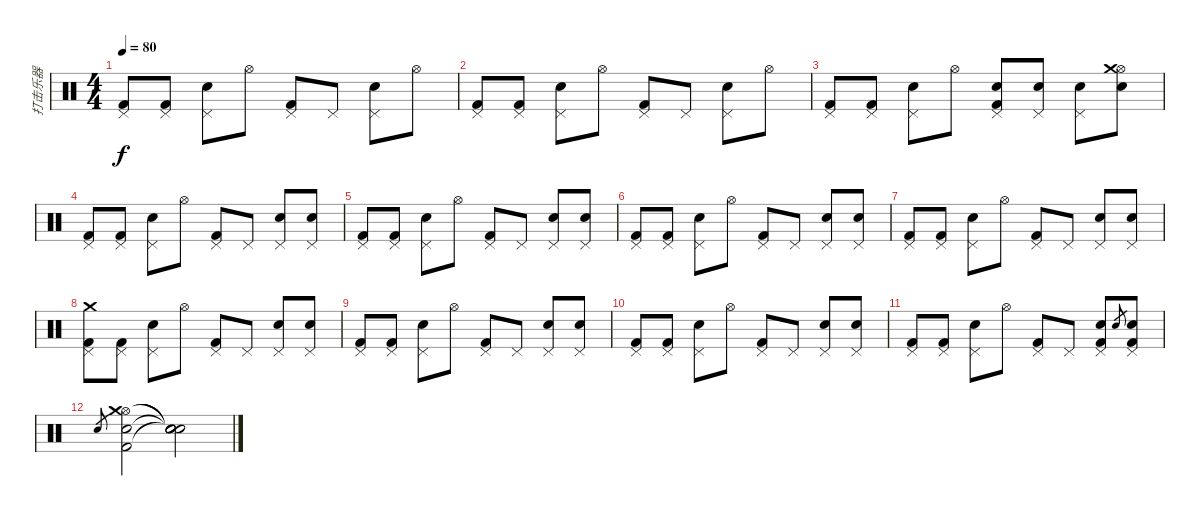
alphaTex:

\track ("打击乐器" "打击乐器") {instrument percussion}
\staff {score}
\articulation defaults
\ts (4 4)
\tempo 80
\clef neutral
\ks c
("Pedal Hi-Hat (hit)" "Kick (hit) 2").8{dy f} ("Pedal Hi-Hat (hit)" "Kick (hit) 2").8 ("Pedal Hi-Hat (hit)" "Snare (hit) 2").8 "Hi-Hat (open)".8 ("Pedal Hi-Hat (hit)" "Kick (hit) 2").8 "Pedal Hi-Hat (hit)".8 ("Pedal Hi-Hat (hit)" "Snare (hit) 2").8 "Hi-Hat (open)".8 |
("Pedal Hi-Hat (hit)" "Kick (hit) 2").8 ("Pedal Hi-Hat (hit)" "Kick (hit) 2").8 ("Pedal Hi-Hat (hit)" "Snare (hit) 2").8 "Hi-Hat (open)".8 ("Pedal Hi-Hat (hit)" "Kick (hit) 2").8 "Pedal Hi-Hat (hit)".8 ("Pedal Hi-Hat (hit)" "Snare (hit) 2").8 "Hi-Hat (open)".8 |
("Pedal Hi-Hat (hit)" "Kick (hit) 2").8 ("Pedal Hi-Hat (hit)" "Kick (hit) 2").8 ("Pedal Hi-Hat (hit)" "Snare (hit) 2").8 "Hi-Hat (open)".8 ("Pedal Hi-Hat (hit)" "Kick (hit) 2" "Snare (hit) 2").8 ("Pedal Hi-Hat (hit)" "Snare (hit) 2").8 ("Pedal Hi-Hat (hit)" "Snare (hit) 2").8 ("Hi-Hat (open)" "Crash medium (hit)" "Snare (hit) 2").8 |
("Pedal Hi-Hat (hit)" "Kick (hit) 2").8 ("Pedal Hi-Hat (hit)" "Kick (hit) 2").8 ("Pedal Hi-Hat (hit)" "Snare (hit) 2").8 "Hi-Hat (open)".8 ("Pedal Hi-Hat (hit)" "Kick (hit) 2").8 "Pedal Hi-Hat (hit)".8 ("Pedal Hi-Hat (hit)" "Snare (hit) 2").8 ("Pedal Hi-Hat (hit)" "Snare (hit) 2").8 |
("Pedal Hi-Hat (hit)" "Kick (hit) 2").8 ("Pedal Hi-Hat (hit)" "Kick (hit) 2").8 ("Pedal Hi-Hat (hit)" "Snare (hit) 2").8 "Hi-Hat (open)".8 ("Pedal Hi-Hat (hit)" "Kick (hit) 2").8 "Pedal Hi-Hat (hit)".8 ("Pedal Hi-Hat (hit)" "Snare (hit) 2").8 ("Pedal Hi-Hat (hit)" "Snare (hit) 2").8 |
("Pedal Hi-Hat (hit)" "Kick (hit) 2").8 ("Pedal Hi-Hat (hit)" "Kick (hit) 2").8 ("Pedal Hi-Hat (hit)" "Snare (hit) 2").8 "Hi-Hat (open)".8 ("Pedal Hi-Hat (hit)" "Kick (hit) 2").8 "Pedal Hi-Hat (hit)".8 ("Pedal Hi-Hat (hit)" "Snare (hit) 2").8 ("Pedal Hi-Hat (hit)" "Snare (hit) 2").8 |
("Pedal Hi-Hat (hit)" "Kick (hit) 2").8 ("Pedal Hi-Hat (hit)" "Kick (hit) 2").8 ("Pedal Hi-Hat (hit)" "Snare (hit) 2").8 "Hi-Hat (open)".8 ("Pedal Hi-Hat (hit)" "Kick (hit) 2").8 "Pedal Hi-Hat (hit)".8 ("Pedal Hi-Hat (hit)" "Snare (hit) 2").8 ("Pedal Hi-Hat (hit)" "Snare (hit) 2").8 |
("Pedal Hi-Hat (hit)" "Crash medium (hit)" "Kick (hit) 2").8 ("Pedal Hi-Hat (hit)" "Kick (hit) 2").8 ("Pedal Hi-Hat (hit)" "Snare (hit) 2").8{volume 16} "Hi-Hat (open)".8 ("Pedal Hi-Hat (hit)" "Kick (hit) 2").8{volume 15} "Pedal Hi-Hat (hit)".8 ("Pedal Hi-Hat (hit)" "Snare (hit) 2").8{volume 14} ("Pedal Hi-Hat (hit)" "Snare (hit) 2").8 |
("Pedal Hi-Hat (hit)" "Kick (hit) 2").8{volume 13} ("Pedal Hi-Hat (hit)" "Kick (hit) 2").8 ("Pedal Hi-Hat (hit)" "Snare (hit) 2").8{volume 12} "Hi-Hat (open)".8 ("Pedal Hi-Hat (hit)" "Kick (hit) 2").8{volume 11} "Pedal Hi-Hat (hit)".8 ("Pedal Hi-Hat (hit)" "Snare (hit) 2").8{volume 10} ("Pedal Hi-Hat (hit)" "Snare (hit) 2").8 |
("Pedal Hi-Hat (hit)" "Kick (hit) 2").8{volume 9} ("Pedal Hi-Hat (hit)" "Kick (hit) 2").8 ("Pedal Hi-Hat (hit)" "Snare (hit) 2").8{volume 8} "Hi-Hat (open)".8 ("Pedal Hi-Hat (hit)" "Kick (hit) 2").8{volume 7} "Pedal Hi-Hat (hit)".8 ("Pedal Hi-Hat (hit)" "Snare (hit) 2").8{volume 6} ("Pedal Hi-Hat (hit)" "Snare (hit) 2").8 |
("Pedal Hi-Hat (hit)" "Kick (hit) 2").8{volume 5} ("Pedal Hi-Hat (hit)" "Kick (hit) 2").8 ("Pedal Hi-Hat (hit)" "Snare (hit) 2").8{volume 4} "Hi-Hat (open)".8 ("Pedal Hi-Hat (hit)" "Kick (hit) 2").8{volume 3} "Pedal Hi-Hat (hit)".8 ("Pedal Hi-Hat (hit)" "Kick (hit) 2" "Snare (hit) 2").8{volume 2} "Snare (hit) 2".8{gr} ("Pedal Hi-Hat (hit)" "Kick (hit) 2" "Snare (hit) 2").8 |
"Snare (hit) 2".8{gr} ("Hi-Hat (open)" "Crash medium (hit)" "Kick (hit) 2" "Snare (hit) 2").2{volume 1} ("Snare (hit)"{t} "Snare (hit)"{t} "Snare (hit)"{t} "Snare (hit)"{t}).2
